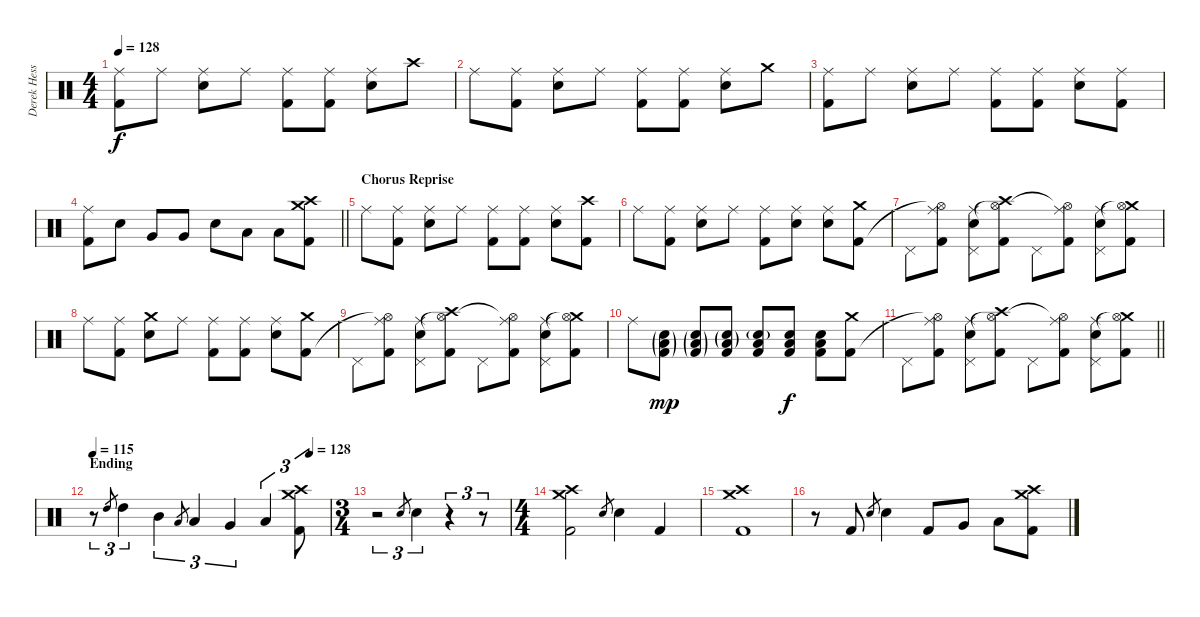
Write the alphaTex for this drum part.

\track ("Derek Hess (Drums and Percussion)" "Derek Hess") {instrument percussion}
\staff {score}
\articulation defaults
\ts (4 4)
\tempo 128
\clef neutral
\ks c
("Ride (middle)" "Kick (hit) 2").8{dy f} "Ride (middle)".8 ("Ride (middle)" "Snare (hit) 2").8 "Ride (middle)".8 ("Ride (middle)" "Kick (hit) 2").8 ("Ride (middle)" "Kick (hit) 2").8 ("Ride (middle)" "Snare (hit) 2").8 "Crash high (hit)".8 |
"Ride (middle)".8 ("Ride (middle)" "Kick (hit) 2").8 ("Ride (middle)" "Snare (hit) 2").8 "Ride (middle)".8 ("Ride (middle)" "Kick (hit) 2").8 ("Ride (middle)" "Kick (hit) 2").8 ("Ride (middle)" "Snare (hit) 2").8 "Crash medium (hit)".8 |
("Ride (middle)" "Kick (hit) 2").8 "Ride (middle)".8 ("Ride (middle)" "Snare (hit) 2").8 "Ride (middle)".8 ("Ride (middle)" "Kick (hit) 2").8 ("Ride (middle)" "Kick (hit) 2").8 ("Ride (middle)" "Snare (hit) 2").8 ("Ride (middle)" "Kick (hit) 2").8 |
\barLineRight lightlight
("Ride (middle)" "Kick (hit) 2").8 "Snare (hit) 2".8 "Very Low Tom (hit)".8 "Very Low Tom (hit)".8 "Snare (hit) 2".8 "Low Tom (hit)".8 "Low Tom (hit)".8 ("Crash medium (hit)" "Crash high (hit)" "Kick (hit) 2").8 |
\section ("" "Chorus Reprise")
"Ride (middle)".8 ("Ride (middle)" "Kick (hit) 2").8 ("Ride (middle)" "Snare (hit) 2").8 "Ride (middle)".8 ("Ride (middle)" "Kick (hit) 2").8 ("Ride (middle)" "Kick (hit) 2").8 ("Ride (middle)" "Snare (hit) 2").8 ("Crash high (hit)" "Kick (hit) 2").8 |
"Ride (middle)".8 ("Ride (middle)" "Kick (hit) 2").8 ("Ride (middle)" "Snare (hit) 2").8 "Ride (middle)".8 ("Ride (middle)" "Kick (hit) 2").8 ("Ride (middle)" "Snare (hit) 2").8 ("Ride (middle)" "Snare (hit) 2").8 ("Crash medium (hit)" "Kick (hit) 2").8 |
"Pedal Hi-Hat (hit)".8 ("Ride (middle)" "Hi-Hat (open)"{t} "Kick (hit) 2").8 ("Ride (middle)" "Snare (hit) 2" "Pedal Hi-Hat (hit)").8 ("Crash high (hit)" "Hi-Hat (open)"{t} "Kick (hit) 2").8 "Pedal Hi-Hat (hit)".8 ("Ride (middle)" "Hi-Hat (open)"{t} "Kick (hit) 2").8 ("Ride (middle)" "Snare (hit) 2" "Pedal Hi-Hat (hit)").8 ("Crash medium (hit)" "Hi-Hat (open)"{t} "Kick (hit) 2").8 |
"Ride (middle)".8 ("Ride (middle)" "Kick (hit) 2").8 ("Crash medium (hit)" "Snare (hit) 2").8 "Ride (middle)".8 ("Ride (middle)" "Kick (hit) 2").8 ("Ride (middle)" "Kick (hit) 2").8 ("Ride (middle)" "Snare (hit) 2").8 ("Crash medium (hit)" "Kick (hit) 2").8 |
"Pedal Hi-Hat (hit)".8 ("Ride (middle)" "Hi-Hat (open)"{t} "Kick (hit) 2").8 ("Ride (middle)" "Snare (hit) 2" "Pedal Hi-Hat (hit)").8 ("Crash high (hit)" "Hi-Hat (open)"{t} "Kick (hit) 2").8 "Pedal Hi-Hat (hit)".8 ("Ride (middle)" "Hi-Hat (open)"{t} "Kick (hit) 2").8 ("Ride (middle)" "Snare (hit) 2" "Pedal Hi-Hat (hit)").8 ("Crash medium (hit)" "Hi-Hat (open)"{t} "Kick (hit) 2").8 |
"Ride (middle)".8 ("Low Floor Tom (hit)"{g} "Snare (hit) 2"{g} "Kick (hit) 2"{g}).8{dy mp} ("Low Floor Tom (hit)"{g} "Snare (hit) 2"{g} "Kick (hit) 2"{g}).8 ("Low Floor Tom (hit)"{g} "Snare (hit) 2"{g} "Kick (hit) 2").8 ("Low Floor Tom (hit)" "Snare (hit) 2"{g} "Kick (hit) 2").8 ("Low Floor Tom (hit)" "Snare (hit) 2" "Kick (hit) 2").8{dy f} ("Low Floor Tom (hit)" "Snare (hit) 2" "Kick (hit) 2").8 ("Crash medium (hit)" "Kick (hit) 2").8 |
\barLineRight lightlight "Pedal Hi-Hat (hit)".8
("Ride (middle)" "Hi-Hat (open)"{t} "Kick (hit) 2").8 ("Ride (middle)" "Snare (hit) 2" "Pedal Hi-Hat (hit)").8 ("Crash high (hit)" "Hi-Hat (open)"{t} "Kick (hit) 2").8 "Pedal Hi-Hat (hit)".8 ("Ride (middle)" "Hi-Hat (open)"{t} "Kick (hit) 2").8 ("Ride (middle)" "Snare (hit) 2" "Pedal Hi-Hat (hit)").8 ("Crash medium (hit)" "Hi-Hat (open)"{t} "Kick (hit) 2").8 |
\section ("" "Ending")
\tempo 115
\tempo (128 0.9166666666666666)
r.8{tu (3 2)} "High Tom (hit)".8{gr} "High Tom (hit)".4{tu (3 2)} "Mid Tom (hit)".4{tu (3 2)} "Low Tom (hit)".8{gr} "Low Tom (hit)".4{tu (3 2)} "Very Low Tom (hit)".4{tu (3 2)} "Low Floor Tom (hit)".4{tu (3 2)} ("Crash medium (hit)" "Crash high (hit)" "Kick (hit) 2").8{tu (3 2)} |
\ts (3 4)
r.2{tu (3 2)} "Snare (hit) 2".8{gr} "Snare (hit) 2".4{tu (3 2)} r.4{tu (3 2)} r.8{tu (3 2)} |
\ts (4 4)
("Crash medium (hit)" "Crash high (hit)" "Kick (hit) 2").2 "Snare (hit) 2".8{gr} "Snare (hit) 2".4 "Kick (hit) 2".4 |
("Crash medium (hit)" "Crash high (hit)" "Kick (hit) 2").1 |
r.8 "Kick (hit) 2".8 "Snare (hit) 2".8{gr} "Snare (hit) 2".4 "Kick (hit) 2".8 "Very Low Tom (hit)".8 "Low Tom (hit)".8 ("Crash medium (hit)" "Crash high (hit)" "Kick (hit) 2").8
